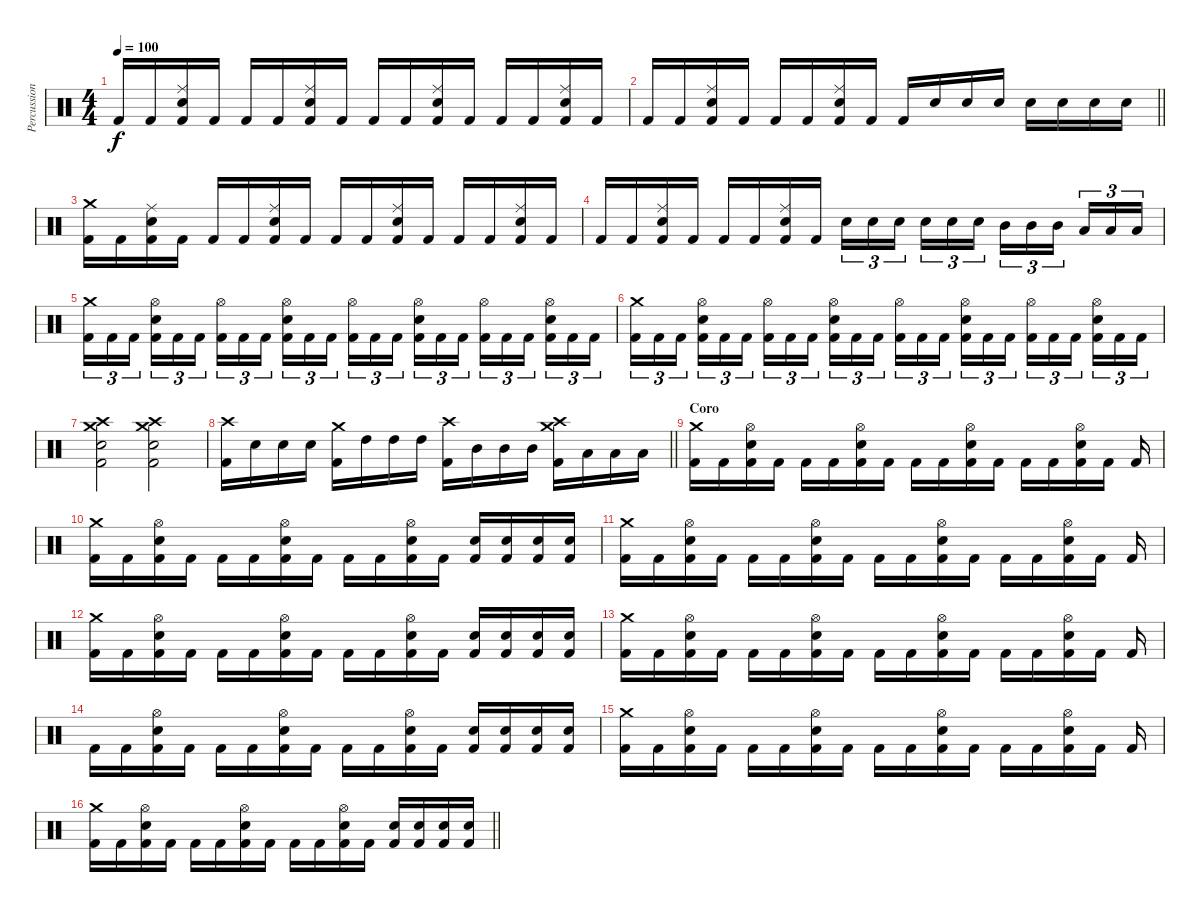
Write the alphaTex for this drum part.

\track ("Percussion" "Percussion") {instrument percussion}
\staff {score}
\articulation defaults
\ts (4 4)
\tempo 100
\clef neutral
\ks c "Kick (hit) 2".16{dy f} "Kick (hit) 2".16
("Ride (middle)" "Electric Snare (hit)" "Kick (hit) 2").16 "Kick (hit) 2".16 "Kick (hit) 2".16 "Kick (hit) 2".16 ("Ride (middle)" "Electric Snare (hit)" "Kick (hit) 2").16 "Kick (hit) 2".16 "Kick (hit) 2".16 "Kick (hit) 2".16 ("Ride (middle)" "Electric Snare (hit)" "Kick (hit) 2").16 "Kick (hit) 2".16 "Kick (hit) 2".16 "Kick (hit) 2".16 ("Ride (middle)" "Electric Snare (hit)" "Kick (hit) 2").16 "Kick (hit) 2".16 |
\barLineRight lightlight "Kick (hit) 2".16 "Kick (hit) 2".16
("Ride (middle)" "Electric Snare (hit)" "Kick (hit) 2").16 "Kick (hit) 2".16 "Kick (hit) 2".16 "Kick (hit) 2".16 ("Ride (middle)" "Electric Snare (hit)" "Kick (hit) 2").16 "Kick (hit) 2".16 "Kick (hit) 2".16 "Electric Snare (hit)".16 "Electric Snare (hit)".16 "Electric Snare (hit)".16 "Electric Snare (hit)".16 "Electric Snare (hit)".16 "Electric Snare (hit)".16 "Electric Snare (hit)".16 |
\section ("" "")
("Crash medium (hit)" "Kick (hit) 2").16 "Kick (hit) 2".16 ("Ride (middle)" "Electric Snare (hit)" "Kick (hit) 2").16 "Kick (hit) 2".16 "Kick (hit) 2".16 "Kick (hit) 2".16 ("Ride (middle)" "Electric Snare (hit)" "Kick (hit) 2").16 "Kick (hit) 2".16 "Kick (hit) 2".16 "Kick (hit) 2".16 ("Ride (middle)" "Electric Snare (hit)" "Kick (hit) 2").16 "Kick (hit) 2".16 "Kick (hit) 2".16 "Kick (hit) 2".16 ("Ride (middle)" "Electric Snare (hit)" "Kick (hit) 2").16 "Kick (hit) 2".16 |
"Kick (hit) 2".16 "Kick (hit) 2".16 ("Ride (middle)" "Electric Snare (hit)" "Kick (hit) 2").16 "Kick (hit) 2".16 "Kick (hit) 2".16 "Kick (hit) 2".16 ("Ride (middle)" "Electric Snare (hit)" "Kick (hit) 2").16 "Kick (hit) 2".16 "Electric Snare (hit)".16{tu (3 2)} "Electric Snare (hit)".16{tu (3 2)} "Electric Snare (hit)".16{tu (3 2) beam splitsecondary} "Electric Snare (hit)".16{tu (3 2)} "Electric Snare (hit)".16{tu (3 2)} "Electric Snare (hit)".16{tu (3 2)} "Mid Tom (hit)".16{tu (3 2)} "Mid Tom (hit)".16{tu (3 2)} "Mid Tom (hit)".16{tu (3 2) beam splitsecondary} "Low Tom (hit)".16{tu (3 2)} "Low Tom (hit)".16{tu (3 2)} "Low Tom (hit)".16{tu (3 2)} |
("Crash medium (hit)" "Kick (hit) 2").16{tu (3 2)} "Kick (hit) 2".16{tu (3 2)} "Kick (hit) 2".16{tu (3 2) beam splitsecondary} ("Hi-Hat (open)" "Electric Snare (hit)" "Kick (hit) 2").16{tu (3 2)} "Kick (hit) 2".16{tu (3 2)} "Kick (hit) 2".16{tu (3 2)} ("Hi-Hat (open)" "Kick (hit) 2").16{tu (3 2)} "Kick (hit) 2".16{tu (3 2)} "Kick (hit) 2".16{tu (3 2) beam splitsecondary} ("Hi-Hat (open)" "Electric Snare (hit)" "Kick (hit) 2").16{tu (3 2)} "Kick (hit) 2".16{tu (3 2)} "Kick (hit) 2".16{tu (3 2)} ("Hi-Hat (open)" "Kick (hit) 2").16{tu (3 2)} "Kick (hit) 2".16{tu (3 2)} "Kick (hit) 2".16{tu (3 2) beam splitsecondary} ("Hi-Hat (open)" "Electric Snare (hit)" "Kick (hit) 2").16{tu (3 2)} "Kick (hit) 2".16{tu (3 2)} "Kick (hit) 2".16{tu (3 2)} ("Hi-Hat (open)" "Kick (hit) 2").16{tu (3 2)} "Kick (hit) 2".16{tu (3 2)} "Kick (hit) 2".16{tu (3 2) beam splitsecondary} ("Hi-Hat (open)" "Electric Snare (hit)" "Kick (hit) 2").16{tu (3 2)} "Kick (hit) 2".16{tu (3 2)} "Kick (hit) 2".16{tu (3 2)} |
("Crash medium (hit)" "Kick (hit) 2").16{tu (3 2)} "Kick (hit) 2".16{tu (3 2)} "Kick (hit) 2".16{tu (3 2) beam splitsecondary} ("Hi-Hat (open)" "Electric Snare (hit)" "Kick (hit) 2").16{tu (3 2)} "Kick (hit) 2".16{tu (3 2)} "Kick (hit) 2".16{tu (3 2)} ("Hi-Hat (open)" "Kick (hit) 2").16{tu (3 2)} "Kick (hit) 2".16{tu (3 2)} "Kick (hit) 2".16{tu (3 2) beam splitsecondary} ("Hi-Hat (open)" "Electric Snare (hit)" "Kick (hit) 2").16{tu (3 2)} "Kick (hit) 2".16{tu (3 2)} "Kick (hit) 2".16{tu (3 2)} ("Hi-Hat (open)" "Kick (hit) 2").16{tu (3 2)} "Kick (hit) 2".16{tu (3 2)} "Kick (hit) 2".16{tu (3 2) beam splitsecondary} ("Hi-Hat (open)" "Electric Snare (hit)" "Kick (hit) 2").16{tu (3 2)} "Kick (hit) 2".16{tu (3 2)} "Kick (hit) 2".16{tu (3 2)} ("Hi-Hat (open)" "Kick (hit) 2").16{tu (3 2)} "Kick (hit) 2".16{tu (3 2)} "Kick (hit) 2".16{tu (3 2) beam splitsecondary} ("Hi-Hat (open)" "Electric Snare (hit)" "Kick (hit) 2").16{tu (3 2)} "Kick (hit) 2".16{tu (3 2)} "Kick (hit) 2".16{tu (3 2)} |
("Crash high (hit)" "Crash medium (hit)" "Electric Snare (hit)" "Kick (hit) 2").2 ("Crash high (hit)" "Crash medium (hit)" "Electric Snare (hit)" "Kick (hit) 2").2 |
\barLineRight lightlight
("Crash high (hit)" "Kick (hit) 2").16 "Electric Snare (hit)".16 "Electric Snare (hit)".16 "Electric Snare (hit)".16 ("Crash medium (hit)" "Kick (hit) 2").16 "High Tom (hit)".16 "High Tom (hit)".16 "High Tom (hit)".16 ("Crash high (hit)" "Kick (hit) 2").16 "Mid Tom (hit)".16 "Mid Tom (hit)".16 "Mid Tom (hit)".16 ("Crash medium (hit)" "Crash high (hit)" "Kick (hit) 2").16 "Low Tom (hit)".16 "Low Tom (hit)".16 "Low Tom (hit)".16 |
\section ("" "Coro")
("Crash medium (hit)" "Kick (hit) 2").16 "Kick (hit) 2".16 ("Hi-Hat (open)" "Electric Snare (hit)" "Kick (hit) 2").16 "Kick (hit) 2".16 "Kick (hit) 2".16 "Kick (hit) 2".16 ("Hi-Hat (open)" "Electric Snare (hit)" "Kick (hit) 2").16 "Kick (hit) 2".16 "Kick (hit) 2".16 "Kick (hit) 2".16 ("Hi-Hat (open)" "Electric Snare (hit)" "Kick (hit) 2").16 "Kick (hit) 2".16 "Kick (hit) 2".16 "Kick (hit) 2".16 ("Hi-Hat (open)" "Electric Snare (hit)" "Kick (hit) 2").16 "Kick (hit) 2".16 "Kick (hit) 2".16 |
("Crash medium (hit)" "Kick (hit) 2").16 "Kick (hit) 2".16 ("Hi-Hat (open)" "Electric Snare (hit)" "Kick (hit) 2").16 "Kick (hit) 2".16 "Kick (hit) 2".16 "Kick (hit) 2".16 ("Hi-Hat (open)" "Electric Snare (hit)" "Kick (hit) 2").16 "Kick (hit) 2".16 "Kick (hit) 2".16 "Kick (hit) 2".16 ("Hi-Hat (open)" "Electric Snare (hit)" "Kick (hit) 2").16 "Kick (hit) 2".16 ("Electric Snare (hit)" "Kick (hit) 2").16 ("Electric Snare (hit)" "Kick (hit) 2").16 ("Electric Snare (hit)" "Kick (hit) 2").16 ("Electric Snare (hit)" "Kick (hit) 2").16 |
("Crash medium (hit)" "Kick (hit) 2").16 "Kick (hit) 2".16 ("Hi-Hat (open)" "Electric Snare (hit)" "Kick (hit) 2").16 "Kick (hit) 2".16 "Kick (hit) 2".16 "Kick (hit) 2".16 ("Hi-Hat (open)" "Electric Snare (hit)" "Kick (hit) 2").16 "Kick (hit) 2".16 "Kick (hit) 2".16 "Kick (hit) 2".16 ("Hi-Hat (open)" "Electric Snare (hit)" "Kick (hit) 2").16 "Kick (hit) 2".16 "Kick (hit) 2".16 "Kick (hit) 2".16 ("Hi-Hat (open)" "Electric Snare (hit)" "Kick (hit) 2").16 "Kick (hit) 2".16 "Kick (hit) 2".16 |
("Crash medium (hit)" "Kick (hit) 2").16 "Kick (hit) 2".16 ("Hi-Hat (open)" "Electric Snare (hit)" "Kick (hit) 2").16 "Kick (hit) 2".16 "Kick (hit) 2".16 "Kick (hit) 2".16 ("Hi-Hat (open)" "Electric Snare (hit)" "Kick (hit) 2").16 "Kick (hit) 2".16 "Kick (hit) 2".16 "Kick (hit) 2".16 ("Hi-Hat (open)" "Electric Snare (hit)" "Kick (hit) 2").16 "Kick (hit) 2".16 ("Electric Snare (hit)" "Kick (hit) 2").16 ("Electric Snare (hit)" "Kick (hit) 2").16 ("Electric Snare (hit)" "Kick (hit) 2").16 ("Electric Snare (hit)" "Kick (hit) 2").16 |
("Crash medium (hit)" "Kick (hit) 2").16 "Kick (hit) 2".16 ("Hi-Hat (open)" "Electric Snare (hit)" "Kick (hit) 2").16 "Kick (hit) 2".16 "Kick (hit) 2".16 "Kick (hit) 2".16 ("Hi-Hat (open)" "Electric Snare (hit)" "Kick (hit) 2").16 "Kick (hit) 2".16 "Kick (hit) 2".16 "Kick (hit) 2".16 ("Hi-Hat (open)" "Electric Snare (hit)" "Kick (hit) 2").16 "Kick (hit) 2".16 "Kick (hit) 2".16 "Kick (hit) 2".16 ("Hi-Hat (open)" "Electric Snare (hit)" "Kick (hit) 2").16 "Kick (hit) 2".16 "Kick (hit) 2".16 |
"Kick (hit) 2".16 "Kick (hit) 2".16 ("Hi-Hat (open)" "Electric Snare (hit)" "Kick (hit) 2").16 "Kick (hit) 2".16 "Kick (hit) 2".16 "Kick (hit) 2".16 ("Hi-Hat (open)" "Electric Snare (hit)" "Kick (hit) 2").16 "Kick (hit) 2".16 "Kick (hit) 2".16 "Kick (hit) 2".16 ("Hi-Hat (open)" "Electric Snare (hit)" "Kick (hit) 2").16 "Kick (hit) 2".16 ("Electric Snare (hit)" "Kick (hit) 2").16 ("Electric Snare (hit)" "Kick (hit) 2").16 ("Electric Snare (hit)" "Kick (hit) 2").16 ("Electric Snare (hit)" "Kick (hit) 2").16 |
("Crash medium (hit)" "Kick (hit) 2").16 "Kick (hit) 2".16 ("Hi-Hat (open)" "Electric Snare (hit)" "Kick (hit) 2").16 "Kick (hit) 2".16 "Kick (hit) 2".16 "Kick (hit) 2".16 ("Hi-Hat (open)" "Electric Snare (hit)" "Kick (hit) 2").16 "Kick (hit) 2".16 "Kick (hit) 2".16 "Kick (hit) 2".16 ("Hi-Hat (open)" "Electric Snare (hit)" "Kick (hit) 2").16 "Kick (hit) 2".16 "Kick (hit) 2".16 "Kick (hit) 2".16 ("Hi-Hat (open)" "Electric Snare (hit)" "Kick (hit) 2").16 "Kick (hit) 2".16 "Kick (hit) 2".16 |
\barLineRight lightlight
("Crash medium (hit)" "Kick (hit) 2").16 "Kick (hit) 2".16 ("Hi-Hat (open)" "Electric Snare (hit)" "Kick (hit) 2").16 "Kick (hit) 2".16 "Kick (hit) 2".16 "Kick (hit) 2".16 ("Hi-Hat (open)" "Electric Snare (hit)" "Kick (hit) 2").16 "Kick (hit) 2".16 "Kick (hit) 2".16 "Kick (hit) 2".16 ("Hi-Hat (open)" "Electric Snare (hit)" "Kick (hit) 2").16 "Kick (hit) 2".16 ("Electric Snare (hit)" "Kick (hit) 2").16 ("Electric Snare (hit)" "Kick (hit) 2").16 ("Electric Snare (hit)" "Kick (hit) 2").16 ("Electric Snare (hit)" "Kick (hit) 2").16
